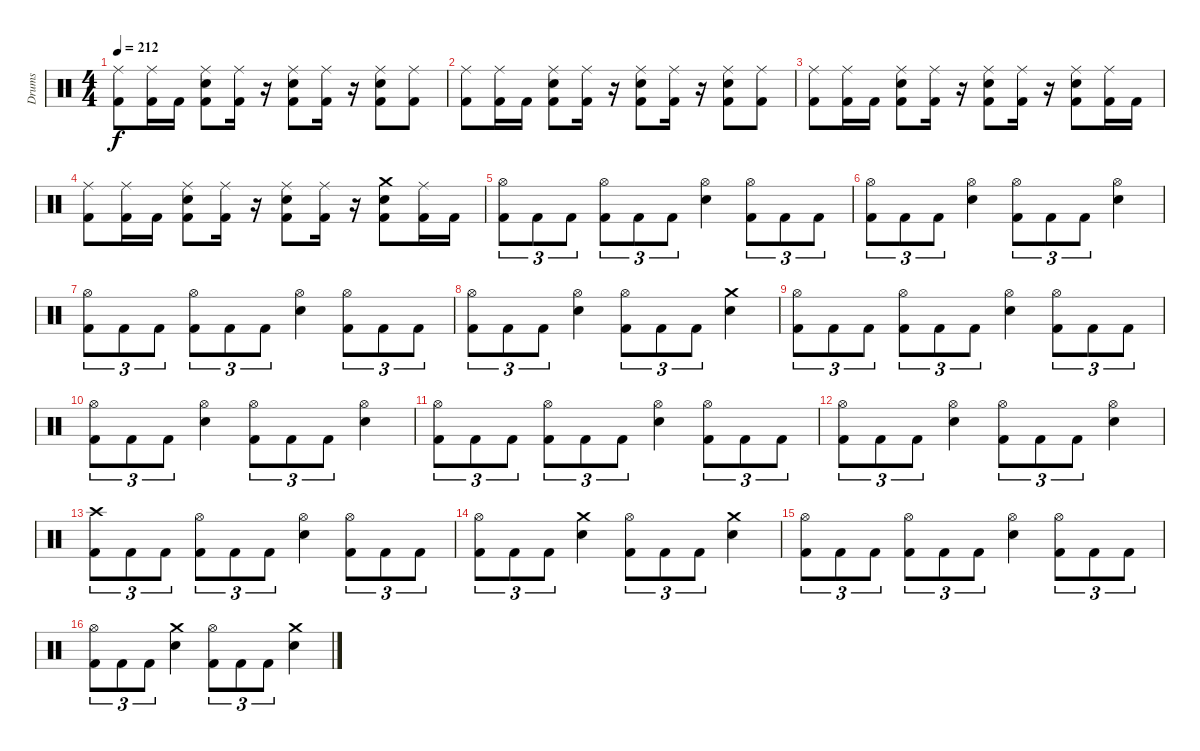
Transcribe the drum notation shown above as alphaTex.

\track ("Drums" "Drums") {instrument percussion}
\staff {score}
\articulation defaults
\ts (4 4)
\tempo 212
\clef neutral
\ks c
("Kick (hit) 2" "Ride (middle)").8{dy f} ("Kick (hit) 2" "Ride (middle)").16 "Kick (hit) 2".16 ("Kick (hit) 2" "Snare (hit) 2" "Ride (middle)").8 ("Kick (hit) 2" "Ride (middle)").16 r.16 ("Kick (hit) 2" "Snare (hit) 2" "Ride (middle)").8 ("Kick (hit) 2" "Ride (middle)").16 r.16 ("Kick (hit) 2" "Snare (hit) 2" "Ride (middle)").8 ("Kick (hit) 2" "Ride (middle)").8 |
("Kick (hit) 2" "Ride (middle)").8 ("Kick (hit) 2" "Ride (middle)").16 "Kick (hit) 2".16 ("Kick (hit) 2" "Snare (hit) 2" "Ride (middle)").8 ("Kick (hit) 2" "Ride (middle)").16 r.16 ("Kick (hit) 2" "Snare (hit) 2" "Ride (middle)").8 ("Kick (hit) 2" "Ride (middle)").16 r.16 ("Kick (hit) 2" "Snare (hit) 2" "Ride (middle)").8 ("Kick (hit) 2" "Ride (middle)").8 |
("Kick (hit) 2" "Ride (middle)").8 ("Kick (hit) 2" "Ride (middle)").16 "Kick (hit) 2".16 ("Kick (hit) 2" "Snare (hit) 2" "Ride (middle)").8 ("Kick (hit) 2" "Ride (middle)").16 r.16 ("Kick (hit) 2" "Snare (hit) 2" "Ride (middle)").8 ("Kick (hit) 2" "Ride (middle)").16 r.16 ("Kick (hit) 2" "Snare (hit) 2" "Ride (middle)").8 ("Kick (hit) 2" "Ride (middle)").16 "Kick (hit) 2".16 |
("Kick (hit) 2" "Ride (middle)").8 ("Kick (hit) 2" "Ride (middle)").16 "Kick (hit) 2".16 ("Kick (hit) 2" "Snare (hit) 2" "Ride (middle)").8 ("Kick (hit) 2" "Ride (middle)").16 r.16 ("Kick (hit) 2" "Snare (hit) 2" "Ride (middle)").8 ("Kick (hit) 2" "Ride (middle)").16 r.16 ("Kick (hit) 2" "Snare (hit) 2" "Crash medium (hit)").8 ("Kick (hit) 2" "Ride (middle)").16 "Kick (hit) 2".16 |
("Kick (hit) 2" "Hi-Hat (open)").8{tu (3 2)} "Kick (hit) 2".8{tu (3 2)} "Kick (hit) 2".8{tu (3 2)} ("Kick (hit) 2" "Hi-Hat (open)").8{tu (3 2)} "Kick (hit) 2".8{tu (3 2)} "Kick (hit) 2".8{tu (3 2)} ("Snare (hit) 2" "Hi-Hat (open)").4 ("Kick (hit) 2" "Hi-Hat (open)").8{tu (3 2)} "Kick (hit) 2".8{tu (3 2)} "Kick (hit) 2".8{tu (3 2)} |
("Kick (hit) 2" "Hi-Hat (open)").8{tu (3 2)} "Kick (hit) 2".8{tu (3 2)} "Kick (hit) 2".8{tu (3 2)} ("Snare (hit) 2" "Hi-Hat (open)").4 ("Kick (hit) 2" "Hi-Hat (open)").8{tu (3 2)} "Kick (hit) 2".8{tu (3 2)} "Kick (hit) 2".8{tu (3 2)} ("Snare (hit) 2" "Hi-Hat (open)").4 |
("Kick (hit) 2" "Hi-Hat (open)").8{tu (3 2)} "Kick (hit) 2".8{tu (3 2)} "Kick (hit) 2".8{tu (3 2)} ("Kick (hit) 2" "Hi-Hat (open)").8{tu (3 2)} "Kick (hit) 2".8{tu (3 2)} "Kick (hit) 2".8{tu (3 2)} ("Snare (hit) 2" "Hi-Hat (open)").4 ("Kick (hit) 2" "Hi-Hat (open)").8{tu (3 2)} "Kick (hit) 2".8{tu (3 2)} "Kick (hit) 2".8{tu (3 2)} |
("Kick (hit) 2" "Hi-Hat (open)").8{tu (3 2)} "Kick (hit) 2".8{tu (3 2)} "Kick (hit) 2".8{tu (3 2)} ("Snare (hit) 2" "Hi-Hat (open)").4 ("Kick (hit) 2" "Hi-Hat (open)").8{tu (3 2)} "Kick (hit) 2".8{tu (3 2)} "Kick (hit) 2".8{tu (3 2)} ("Snare (hit) 2" "Crash medium (hit)").4 |
("Kick (hit) 2" "Hi-Hat (open)").8{tu (3 2)} "Kick (hit) 2".8{tu (3 2)} "Kick (hit) 2".8{tu (3 2)} ("Kick (hit) 2" "Hi-Hat (open)").8{tu (3 2)} "Kick (hit) 2".8{tu (3 2)} "Kick (hit) 2".8{tu (3 2)} ("Snare (hit) 2" "Hi-Hat (open)").4 ("Kick (hit) 2" "Hi-Hat (open)").8{tu (3 2)} "Kick (hit) 2".8{tu (3 2)} "Kick (hit) 2".8{tu (3 2)} |
("Kick (hit) 2" "Hi-Hat (open)").8{tu (3 2)} "Kick (hit) 2".8{tu (3 2)} "Kick (hit) 2".8{tu (3 2)} ("Snare (hit) 2" "Hi-Hat (open)").4 ("Kick (hit) 2" "Hi-Hat (open)").8{tu (3 2)} "Kick (hit) 2".8{tu (3 2)} "Kick (hit) 2".8{tu (3 2)} ("Snare (hit) 2" "Hi-Hat (open)").4 |
("Kick (hit) 2" "Hi-Hat (open)").8{tu (3 2)} "Kick (hit) 2".8{tu (3 2)} "Kick (hit) 2".8{tu (3 2)} ("Kick (hit) 2" "Hi-Hat (open)").8{tu (3 2)} "Kick (hit) 2".8{tu (3 2)} "Kick (hit) 2".8{tu (3 2)} ("Snare (hit) 2" "Hi-Hat (open)").4 ("Kick (hit) 2" "Hi-Hat (open)").8{tu (3 2)} "Kick (hit) 2".8{tu (3 2)} "Kick (hit) 2".8{tu (3 2)} |
("Kick (hit) 2" "Hi-Hat (open)").8{tu (3 2)} "Kick (hit) 2".8{tu (3 2)} "Kick (hit) 2".8{tu (3 2)} ("Snare (hit) 2" "Hi-Hat (open)").4 ("Kick (hit) 2" "Hi-Hat (open)").8{tu (3 2)} "Kick (hit) 2".8{tu (3 2)} "Kick (hit) 2".8{tu (3 2)} ("Snare (hit) 2" "Hi-Hat (open)").4 |
("Kick (hit) 2" "Crash high (hit)").8{tu (3 2)} "Kick (hit) 2".8{tu (3 2)} "Kick (hit) 2".8{tu (3 2)} ("Kick (hit) 2" "Hi-Hat (open)").8{tu (3 2)} "Kick (hit) 2".8{tu (3 2)} "Kick (hit) 2".8{tu (3 2)} ("Snare (hit) 2" "Hi-Hat (open)").4 ("Kick (hit) 2" "Hi-Hat (open)").8{tu (3 2)} "Kick (hit) 2".8{tu (3 2)} "Kick (hit) 2".8{tu (3 2)} |
("Kick (hit) 2" "Hi-Hat (open)").8{tu (3 2)} "Kick (hit) 2".8{tu (3 2)} "Kick (hit) 2".8{tu (3 2)} ("Snare (hit) 2" "Crash medium (hit)").4 ("Kick (hit) 2" "Hi-Hat (open)").8{tu (3 2)} "Kick (hit) 2".8{tu (3 2)} "Kick (hit) 2".8{tu (3 2)} ("Snare (hit) 2" "Crash medium (hit)").4 |
("Kick (hit) 2" "Hi-Hat (open)").8{tu (3 2)} "Kick (hit) 2".8{tu (3 2)} "Kick (hit) 2".8{tu (3 2)} ("Kick (hit) 2" "Hi-Hat (open)").8{tu (3 2)} "Kick (hit) 2".8{tu (3 2)} "Kick (hit) 2".8{tu (3 2)} ("Snare (hit) 2" "Hi-Hat (open)").4 ("Kick (hit) 2" "Hi-Hat (open)").8{tu (3 2)} "Kick (hit) 2".8{tu (3 2)} "Kick (hit) 2".8{tu (3 2)} |
("Kick (hit) 2" "Hi-Hat (open)").8{tu (3 2)} "Kick (hit) 2".8{tu (3 2)} "Kick (hit) 2".8{tu (3 2)} ("Snare (hit) 2" "Crash medium (hit)").4 ("Kick (hit) 2" "Hi-Hat (open)").8{tu (3 2)} "Kick (hit) 2".8{tu (3 2)} "Kick (hit) 2".8{tu (3 2)} ("Snare (hit) 2" "Crash medium (hit)").4
